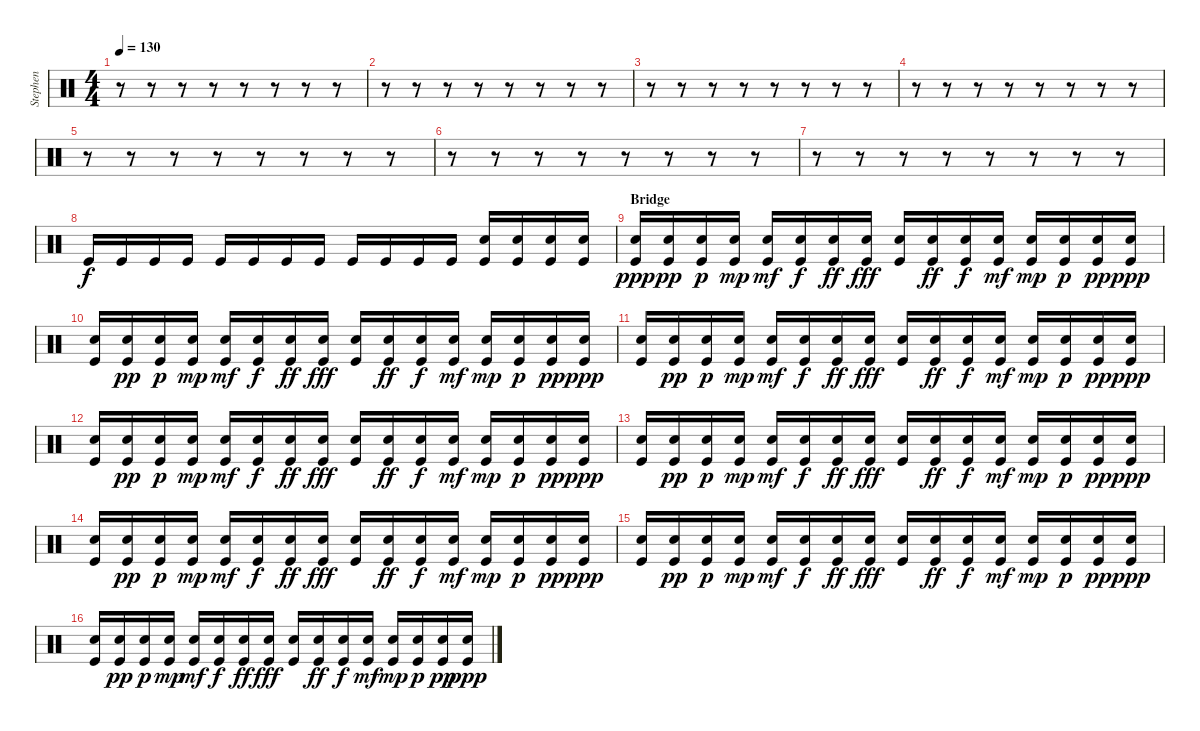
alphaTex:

\track ("Stephen" "Stephen") {instrument percussion}
\staff {score}
\articulation defaults
\ts (4 4)
\tempo 130
\clef neutral
\ks c
r.8{dy f} r.8 r.8 r.8 r.8 r.8 r.8 r.8 |
r.8 r.8 r.8 r.8 r.8 r.8 r.8 r.8 |
r.8 r.8 r.8 r.8 r.8 r.8 r.8 r.8 |
r.8 r.8 r.8 r.8 r.8 r.8 r.8 r.8 |
r.8 r.8 r.8 r.8 r.8 r.8 r.8 r.8 |
r.8 r.8 r.8 r.8 r.8 r.8 r.8 r.8 |
r.8 r.8 r.8 r.8 r.8 r.8 r.8 r.8 |
"Kick (hit)".16 "Kick (hit)".16 "Kick (hit)".16 "Kick (hit)".16 "Kick (hit)".16 "Kick (hit)".16 "Kick (hit)".16 "Kick (hit)".16 "Kick (hit)".16 "Kick (hit)".16 "Kick (hit)".16 "Kick (hit)".16 ("Electric Snare (hit)" "Kick (hit)").16 ("Electric Snare (hit)" "Kick (hit)").16 ("Electric Snare (hit)" "Kick (hit)").16 ("Electric Snare (hit)" "Kick (hit)").16 |
\section ("" "Bridge")
("Electric Snare (hit)" "Kick (hit)").16{dy ppp} ("Electric Snare (hit)" "Kick (hit)").16{dy pp} ("Electric Snare (hit)" "Kick (hit)").16{dy p} ("Electric Snare (hit)" "Kick (hit)").16{dy mp} ("Electric Snare (hit)" "Kick (hit)").16{dy mf} ("Electric Snare (hit)" "Kick (hit)").16{dy f} ("Electric Snare (hit)" "Kick (hit)").16{dy ff} ("Electric Snare (hit)" "Kick (hit)").16{dy fff} ("Electric Snare (hit)" "Kick (hit)").16 ("Electric Snare (hit)" "Kick (hit)").16{dy ff} ("Electric Snare (hit)" "Kick (hit)").16{dy f} ("Electric Snare (hit)" "Kick (hit)").16{dy mf} ("Electric Snare (hit)" "Kick (hit)").16{dy mp} ("Electric Snare (hit)" "Kick (hit)").16{dy p} ("Electric Snare (hit)" "Kick (hit)").16{dy pp} ("Electric Snare (hit)" "Kick (hit)").16{dy ppp} |
("Electric Snare (hit)" "Kick (hit)").16 ("Electric Snare (hit)" "Kick (hit)").16{dy pp} ("Electric Snare (hit)" "Kick (hit)").16{dy p} ("Electric Snare (hit)" "Kick (hit)").16{dy mp} ("Electric Snare (hit)" "Kick (hit)").16{dy mf} ("Electric Snare (hit)" "Kick (hit)").16{dy f} ("Electric Snare (hit)" "Kick (hit)").16{dy ff} ("Electric Snare (hit)" "Kick (hit)").16{dy fff} ("Electric Snare (hit)" "Kick (hit)").16 ("Electric Snare (hit)" "Kick (hit)").16{dy ff} ("Electric Snare (hit)" "Kick (hit)").16{dy f} ("Electric Snare (hit)" "Kick (hit)").16{dy mf} ("Electric Snare (hit)" "Kick (hit)").16{dy mp} ("Electric Snare (hit)" "Kick (hit)").16{dy p} ("Electric Snare (hit)" "Kick (hit)").16{dy pp} ("Electric Snare (hit)" "Kick (hit)").16{dy ppp} |
("Electric Snare (hit)" "Kick (hit)").16 ("Electric Snare (hit)" "Kick (hit)").16{dy pp} ("Electric Snare (hit)" "Kick (hit)").16{dy p} ("Electric Snare (hit)" "Kick (hit)").16{dy mp} ("Electric Snare (hit)" "Kick (hit)").16{dy mf} ("Electric Snare (hit)" "Kick (hit)").16{dy f} ("Electric Snare (hit)" "Kick (hit)").16{dy ff} ("Electric Snare (hit)" "Kick (hit)").16{dy fff} ("Electric Snare (hit)" "Kick (hit)").16 ("Electric Snare (hit)" "Kick (hit)").16{dy ff} ("Electric Snare (hit)" "Kick (hit)").16{dy f} ("Electric Snare (hit)" "Kick (hit)").16{dy mf} ("Electric Snare (hit)" "Kick (hit)").16{dy mp} ("Electric Snare (hit)" "Kick (hit)").16{dy p} ("Electric Snare (hit)" "Kick (hit)").16{dy pp} ("Electric Snare (hit)" "Kick (hit)").16{dy ppp} |
("Electric Snare (hit)" "Kick (hit)").16 ("Electric Snare (hit)" "Kick (hit)").16{dy pp} ("Electric Snare (hit)" "Kick (hit)").16{dy p} ("Electric Snare (hit)" "Kick (hit)").16{dy mp} ("Electric Snare (hit)" "Kick (hit)").16{dy mf} ("Electric Snare (hit)" "Kick (hit)").16{dy f} ("Electric Snare (hit)" "Kick (hit)").16{dy ff} ("Electric Snare (hit)" "Kick (hit)").16{dy fff} ("Electric Snare (hit)" "Kick (hit)").16 ("Electric Snare (hit)" "Kick (hit)").16{dy ff} ("Electric Snare (hit)" "Kick (hit)").16{dy f} ("Electric Snare (hit)" "Kick (hit)").16{dy mf} ("Electric Snare (hit)" "Kick (hit)").16{dy mp} ("Electric Snare (hit)" "Kick (hit)").16{dy p} ("Electric Snare (hit)" "Kick (hit)").16{dy pp} ("Electric Snare (hit)" "Kick (hit)").16{dy ppp} |
("Electric Snare (hit)" "Kick (hit)").16 ("Electric Snare (hit)" "Kick (hit)").16{dy pp} ("Electric Snare (hit)" "Kick (hit)").16{dy p} ("Electric Snare (hit)" "Kick (hit)").16{dy mp} ("Electric Snare (hit)" "Kick (hit)").16{dy mf} ("Electric Snare (hit)" "Kick (hit)").16{dy f} ("Electric Snare (hit)" "Kick (hit)").16{dy ff} ("Electric Snare (hit)" "Kick (hit)").16{dy fff} ("Electric Snare (hit)" "Kick (hit)").16 ("Electric Snare (hit)" "Kick (hit)").16{dy ff} ("Electric Snare (hit)" "Kick (hit)").16{dy f} ("Electric Snare (hit)" "Kick (hit)").16{dy mf} ("Electric Snare (hit)" "Kick (hit)").16{dy mp} ("Electric Snare (hit)" "Kick (hit)").16{dy p} ("Electric Snare (hit)" "Kick (hit)").16{dy pp} ("Electric Snare (hit)" "Kick (hit)").16{dy ppp} |
("Electric Snare (hit)" "Kick (hit)").16 ("Electric Snare (hit)" "Kick (hit)").16{dy pp} ("Electric Snare (hit)" "Kick (hit)").16{dy p} ("Electric Snare (hit)" "Kick (hit)").16{dy mp} ("Electric Snare (hit)" "Kick (hit)").16{dy mf} ("Electric Snare (hit)" "Kick (hit)").16{dy f} ("Electric Snare (hit)" "Kick (hit)").16{dy ff} ("Electric Snare (hit)" "Kick (hit)").16{dy fff} ("Electric Snare (hit)" "Kick (hit)").16 ("Electric Snare (hit)" "Kick (hit)").16{dy ff} ("Electric Snare (hit)" "Kick (hit)").16{dy f} ("Electric Snare (hit)" "Kick (hit)").16{dy mf} ("Electric Snare (hit)" "Kick (hit)").16{dy mp} ("Electric Snare (hit)" "Kick (hit)").16{dy p} ("Electric Snare (hit)" "Kick (hit)").16{dy pp} ("Electric Snare (hit)" "Kick (hit)").16{dy ppp} |
("Electric Snare (hit)" "Kick (hit)").16 ("Electric Snare (hit)" "Kick (hit)").16{dy pp} ("Electric Snare (hit)" "Kick (hit)").16{dy p} ("Electric Snare (hit)" "Kick (hit)").16{dy mp} ("Electric Snare (hit)" "Kick (hit)").16{dy mf} ("Electric Snare (hit)" "Kick (hit)").16{dy f} ("Electric Snare (hit)" "Kick (hit)").16{dy ff} ("Electric Snare (hit)" "Kick (hit)").16{dy fff} ("Electric Snare (hit)" "Kick (hit)").16 ("Electric Snare (hit)" "Kick (hit)").16{dy ff} ("Electric Snare (hit)" "Kick (hit)").16{dy f} ("Electric Snare (hit)" "Kick (hit)").16{dy mf} ("Electric Snare (hit)" "Kick (hit)").16{dy mp} ("Electric Snare (hit)" "Kick (hit)").16{dy p} ("Electric Snare (hit)" "Kick (hit)").16{dy pp} ("Electric Snare (hit)" "Kick (hit)").16{dy ppp} |
("Electric Snare (hit)" "Kick (hit)").16 ("Electric Snare (hit)" "Kick (hit)").16{dy pp} ("Electric Snare (hit)" "Kick (hit)").16{dy p} ("Electric Snare (hit)" "Kick (hit)").16{dy mp} ("Electric Snare (hit)" "Kick (hit)").16{dy mf} ("Electric Snare (hit)" "Kick (hit)").16{dy f} ("Electric Snare (hit)" "Kick (hit)").16{dy ff} ("Electric Snare (hit)" "Kick (hit)").16{dy fff} ("Electric Snare (hit)" "Kick (hit)").16 ("Electric Snare (hit)" "Kick (hit)").16{dy ff} ("Electric Snare (hit)" "Kick (hit)").16{dy f} ("Electric Snare (hit)" "Kick (hit)").16{dy mf} ("Electric Snare (hit)" "Kick (hit)").16{dy mp} ("Electric Snare (hit)" "Kick (hit)").16{dy p} ("Electric Snare (hit)" "Kick (hit)").16{dy pp} ("Electric Snare (hit)" "Kick (hit)").16{dy ppp}
